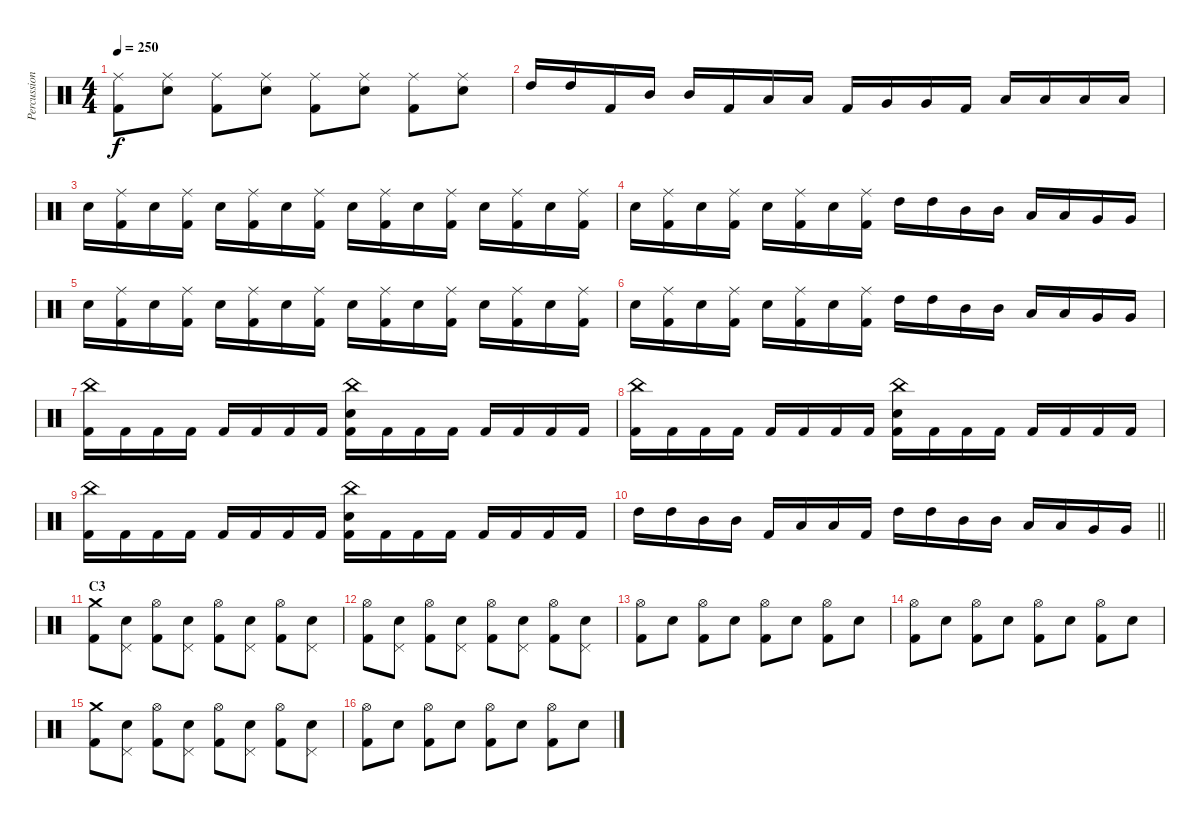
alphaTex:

\track ("Percussions" "Percussion") {instrument percussion}
\staff {score}
\articulation defaults
\ts (4 4)
\tempo 250
\clef neutral
\ks c
("Ride (middle)" "Kick (hit) 2").8{dy f} ("Ride (middle)" "Electric Snare (hit)").8 ("Ride (middle)" "Kick (hit) 2").8 ("Ride (middle)" "Electric Snare (hit)").8 ("Ride (middle)" "Kick (hit) 2").8 ("Ride (middle)" "Electric Snare (hit)").8 ("Ride (middle)" "Kick (hit) 2").8 ("Ride (middle)" "Electric Snare (hit)").8 |
"High Tom (hit)".16 "High Tom (hit)".16 "Kick (hit) 2".16 "Mid Tom (hit)".16 "Mid Tom (hit)".16 "Kick (hit) 2".16 "Low Tom (hit)".16 "Low Tom (hit)".16 "Kick (hit) 2".16 "Very Low Tom (hit)".16 "Very Low Tom (hit)".16 "Kick (hit) 2".16 "Low Floor Tom (hit)".16 "Low Floor Tom (hit)".16 "Low Floor Tom (hit)".16 "Low Floor Tom (hit)".16 |
"Electric Snare (hit)".16 ("Ride (middle)" "Kick (hit) 2").16 "Electric Snare (hit)".16 ("Ride (middle)" "Kick (hit) 2").16 "Electric Snare (hit)".16 ("Ride (middle)" "Kick (hit) 2").16 "Electric Snare (hit)".16 ("Ride (middle)" "Kick (hit) 2").16 "Electric Snare (hit)".16 ("Ride (middle)" "Kick (hit) 2").16 "Electric Snare (hit)".16 ("Ride (middle)" "Kick (hit) 2").16 "Electric Snare (hit)".16 ("Ride (middle)" "Kick (hit) 2").16 "Electric Snare (hit)".16 ("Ride (middle)" "Kick (hit) 2").16 |
"Electric Snare (hit)".16 ("Ride (middle)" "Kick (hit) 2").16 "Electric Snare (hit)".16 ("Ride (middle)" "Kick (hit) 2").16 "Electric Snare (hit)".16 ("Ride (middle)" "Kick (hit) 2").16 "Electric Snare (hit)".16 ("Ride (middle)" "Kick (hit) 2").16 "High Tom (hit)".16 "High Tom (hit)".16 "Mid Tom (hit)".16 "Mid Tom (hit)".16 "Low Tom (hit)".16 "Low Tom (hit)".16 "Very Low Tom (hit)".16 "Very Low Tom (hit)".16 |
"Electric Snare (hit)".16 ("Ride (middle)" "Kick (hit) 2").16 "Electric Snare (hit)".16 ("Ride (middle)" "Kick (hit) 2").16 "Electric Snare (hit)".16 ("Ride (middle)" "Kick (hit) 2").16 "Electric Snare (hit)".16 ("Ride (middle)" "Kick (hit) 2").16 "Electric Snare (hit)".16 ("Ride (middle)" "Kick (hit) 2").16 "Electric Snare (hit)".16 ("Ride (middle)" "Kick (hit) 2").16 "Electric Snare (hit)".16 ("Ride (middle)" "Kick (hit) 2").16 "Electric Snare (hit)".16 ("Ride (middle)" "Kick (hit) 2").16 |
"Electric Snare (hit)".16 ("Ride (middle)" "Kick (hit) 2").16 "Electric Snare (hit)".16 ("Ride (middle)" "Kick (hit) 2").16 "Electric Snare (hit)".16 ("Ride (middle)" "Kick (hit) 2").16 "Electric Snare (hit)".16 ("Ride (middle)" "Kick (hit) 2").16 "High Tom (hit)".16 "High Tom (hit)".16 "Mid Tom (hit)".16 "Mid Tom (hit)".16 "Low Tom (hit)".16 "Low Tom (hit)".16 "Very Low Tom (hit)".16 "Very Low Tom (hit)".16 |
("China (hit)" "Kick (hit) 2").16 "Kick (hit) 2".16 "Kick (hit) 2".16 "Kick (hit) 2".16 "Kick (hit) 2".16 "Kick (hit) 2".16 "Kick (hit) 2".16 "Kick (hit) 2".16 ("China (hit)" "Electric Snare (hit)" "Kick (hit) 2").16 "Kick (hit) 2".16 "Kick (hit) 2".16 "Kick (hit) 2".16 "Kick (hit) 2".16 "Kick (hit) 2".16 "Kick (hit) 2".16 "Kick (hit) 2".16 |
("China (hit)" "Kick (hit) 2").16 "Kick (hit) 2".16 "Kick (hit) 2".16 "Kick (hit) 2".16 "Kick (hit) 2".16 "Kick (hit) 2".16 "Kick (hit) 2".16 "Kick (hit) 2".16 ("China (hit)" "Electric Snare (hit)" "Kick (hit) 2").16 "Kick (hit) 2".16 "Kick (hit) 2".16 "Kick (hit) 2".16 "Kick (hit) 2".16 "Kick (hit) 2".16 "Kick (hit) 2".16 "Kick (hit) 2".16 |
("China (hit)" "Kick (hit) 2").16 "Kick (hit) 2".16 "Kick (hit) 2".16 "Kick (hit) 2".16 "Kick (hit) 2".16 "Kick (hit) 2".16 "Kick (hit) 2".16 "Kick (hit) 2".16 ("China (hit)" "Electric Snare (hit)" "Kick (hit) 2").16 "Kick (hit) 2".16 "Kick (hit) 2".16 "Kick (hit) 2".16 "Kick (hit) 2".16 "Kick (hit) 2".16 "Kick (hit) 2".16 "Kick (hit) 2".16 |
\barLineRight lightlight "High Tom (hit)".16 "High Tom (hit)".16 "Mid Tom (hit)".16 "Mid Tom (hit)".16 "Kick (hit) 2".16 "Low Tom (hit)".16 "Low Tom (hit)".16 "Kick (hit) 2".16 "High Tom (hit)".16 "High Tom (hit)".16 "Mid Tom (hit)".16 "Mid Tom (hit)".16 "Low Tom (hit)".16 "Low Tom (hit)".16 "Very Low Tom (hit)".16 "Very Low Tom (hit)".16
|
\section ("" "C3")
("Crash medium (hit)" "Kick (hit) 2").8 ("Pedal Hi-Hat (hit)" "Electric Snare (hit)").8 ("Hi-Hat (open)" "Kick (hit) 2").8 ("Pedal Hi-Hat (hit)" "Electric Snare (hit)").8 ("Hi-Hat (open)" "Kick (hit) 2").8 ("Pedal Hi-Hat (hit)" "Electric Snare (hit)").8 ("Hi-Hat (open)" "Kick (hit) 2").8 ("Pedal Hi-Hat (hit)" "Electric Snare (hit)").8 |
("Hi-Hat (open)" "Kick (hit) 2").8 ("Pedal Hi-Hat (hit)" "Electric Snare (hit)").8 ("Hi-Hat (open)" "Kick (hit) 2").8 ("Pedal Hi-Hat (hit)" "Electric Snare (hit)").8 ("Hi-Hat (open)" "Kick (hit) 2").8 ("Pedal Hi-Hat (hit)" "Electric Snare (hit)").8 ("Hi-Hat (open)" "Kick (hit) 2").8 ("Pedal Hi-Hat (hit)" "Electric Snare (hit)").8 |
("Hi-Hat (open)" "Kick (hit) 2").8 "Electric Snare (hit)".8 ("Hi-Hat (open)" "Kick (hit) 2").8 "Electric Snare (hit)".8 ("Hi-Hat (open)" "Kick (hit) 2").8 "Electric Snare (hit)".8 ("Hi-Hat (open)" "Kick (hit) 2").8 "Electric Snare (hit)".8 |
("Hi-Hat (open)" "Kick (hit) 2").8 "Electric Snare (hit)".8 ("Hi-Hat (open)" "Kick (hit) 2").8 "Electric Snare (hit)".8 ("Hi-Hat (open)" "Kick (hit) 2").8 "Electric Snare (hit)".8 ("Hi-Hat (open)" "Kick (hit) 2").8 "Electric Snare (hit)".8 |
("Crash medium (hit)" "Kick (hit) 2").8 ("Pedal Hi-Hat (hit)" "Electric Snare (hit)").8 ("Hi-Hat (open)" "Kick (hit) 2").8 ("Pedal Hi-Hat (hit)" "Electric Snare (hit)").8 ("Hi-Hat (open)" "Kick (hit) 2").8 ("Pedal Hi-Hat (hit)" "Electric Snare (hit)").8 ("Hi-Hat (open)" "Kick (hit) 2").8 ("Pedal Hi-Hat (hit)" "Electric Snare (hit)").8 |
("Hi-Hat (open)" "Kick (hit) 2").8 "Electric Snare (hit)".8 ("Hi-Hat (open)" "Kick (hit) 2").8 "Electric Snare (hit)".8 ("Hi-Hat (open)" "Kick (hit) 2").8 "Electric Snare (hit)".8 ("Hi-Hat (open)" "Kick (hit) 2").8 "Electric Snare (hit)".8
